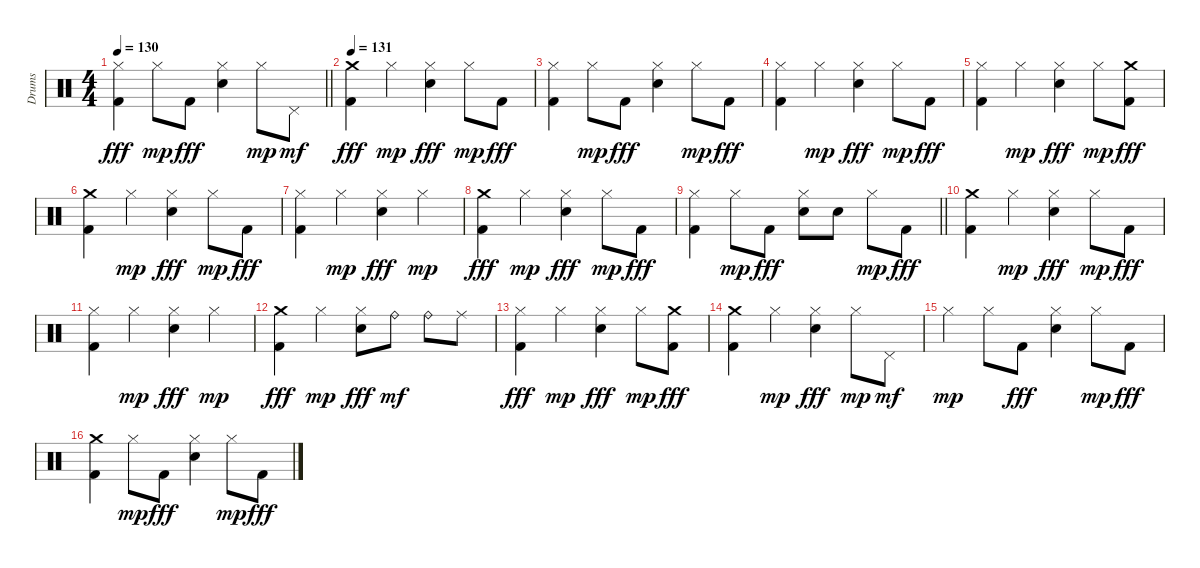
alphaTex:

\track ("Drums" "Drums") {instrument percussion}
\staff {score}
\articulation defaults
\ts (4 4)
\tempo 130
\clef neutral
\barLineRight lightlight
\ks c
("Hi-Hat (closed)" "Kick (hit) 2").4{dy fff} "Hi-Hat (closed)".8{dy mp} "Kick (hit) 2".8{dy fff} ("Hi-Hat (closed)" "Electric Snare (hit)").4 "Hi-Hat (closed)".8{dy mp} "Pedal Hi-Hat (hit)".8{dy mf} |
\tempo 131
("Crash medium (hit)" "Kick (hit) 2").4{dy fff} "Hi-Hat (closed)".4{dy mp} ("Hi-Hat (closed)" "Electric Snare (hit)").4{dy fff} "Hi-Hat (closed)".8{dy mp} "Kick (hit) 2".8{dy fff} |
("Hi-Hat (closed)" "Kick (hit) 2").4 "Hi-Hat (closed)".8{dy mp} "Kick (hit) 2".8{dy fff} ("Hi-Hat (closed)" "Electric Snare (hit)").4 "Hi-Hat (closed)".8{dy mp} "Kick (hit) 2".8{dy fff} |
("Hi-Hat (closed)" "Kick (hit) 2").4 "Hi-Hat (closed)".4{dy mp} ("Hi-Hat (closed)" "Electric Snare (hit)").4{dy fff} "Hi-Hat (closed)".8{dy mp} "Kick (hit) 2".8{dy fff} |
("Hi-Hat (closed)" "Kick (hit) 2").4 "Hi-Hat (closed)".4{dy mp} ("Hi-Hat (closed)" "Electric Snare (hit)").4{dy fff} "Hi-Hat (closed)".8{dy mp} ("Crash medium (hit)" "Kick (hit) 2").8{dy fff} |
("Crash medium (hit)" "Kick (hit) 2").4 "Hi-Hat (closed)".4{dy mp} ("Hi-Hat (closed)" "Electric Snare (hit)").4{dy fff} "Hi-Hat (closed)".8{dy mp} "Kick (hit) 2".8{dy fff} |
("Hi-Hat (closed)" "Kick (hit) 2").4 "Hi-Hat (closed)".4{dy mp} ("Hi-Hat (closed)" "Electric Snare (hit)").4{dy fff} "Hi-Hat (closed)".4{dy mp} |
("Crash medium (hit)" "Kick (hit) 2").4{dy fff} "Hi-Hat (closed)".4{dy mp} ("Hi-Hat (closed)" "Electric Snare (hit)").4{dy fff} "Hi-Hat (closed)".8{dy mp} "Kick (hit) 2".8{dy fff} |
\barLineRight lightlight
("Hi-Hat (closed)" "Kick (hit) 2").4 "Hi-Hat (closed)".8{dy mp} "Kick (hit) 2".8{dy fff} ("Hi-Hat (closed)" "Electric Snare (hit)").8 "Electric Snare (hit)".8 "Hi-Hat (closed)".8{dy mp} "Kick (hit) 2".8{dy fff} |
("Crash medium (hit)" "Kick (hit) 2").4 "Hi-Hat (closed)".4{dy mp} ("Hi-Hat (closed)" "Electric Snare (hit)").4{dy fff} "Hi-Hat (closed)".8{dy mp} "Kick (hit) 2".8{dy fff} |
("Hi-Hat (closed)" "Kick (hit) 2").4 "Hi-Hat (closed)".4{dy mp} ("Hi-Hat (closed)" "Electric Snare (hit)").4{dy fff} "Hi-Hat (closed)".4{dy mp} |
("Crash medium (hit)" "Kick (hit) 2").4{dy fff} "Hi-Hat (closed)".4{dy mp} ("Hi-Hat (closed)" "Electric Snare (hit)").8{dy fff} "Ride (bell)".8{dy mf} "Ride (bell)".8 "Ride (middle)".8 |
("Hi-Hat (closed)" "Kick (hit) 2").4{dy fff} "Hi-Hat (closed)".4{dy mp} ("Hi-Hat (closed)" "Electric Snare (hit)").4{dy fff} "Hi-Hat (closed)".8{dy mp} ("Crash medium (hit)" "Kick (hit) 2").8{dy fff} |
("Crash medium (hit)" "Kick (hit) 2").4 "Hi-Hat (closed)".4{dy mp} ("Hi-Hat (closed)" "Electric Snare (hit)").4{dy fff} "Hi-Hat (closed)".8{dy mp} "Pedal Hi-Hat (hit)".8{dy mf} |
"Hi-Hat (closed)".4{dy mp} "Hi-Hat (closed)".8 "Kick (hit) 2".8{dy fff} ("Hi-Hat (closed)" "Electric Snare (hit)").4 "Hi-Hat (closed)".8{dy mp} "Kick (hit) 2".8{dy fff} |
("Crash medium (hit)" "Kick (hit) 2").4 "Hi-Hat (closed)".8{dy mp} "Kick (hit) 2".8{dy fff} ("Hi-Hat (closed)" "Electric Snare (hit)").4 "Hi-Hat (closed)".8{dy mp} "Kick (hit) 2".8{dy fff}
